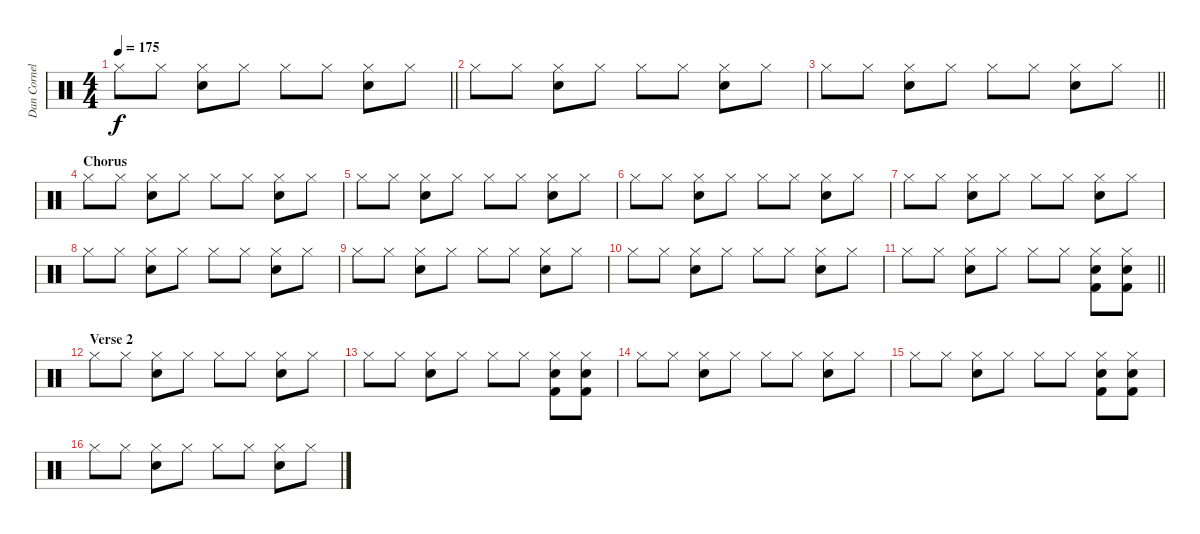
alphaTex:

\track ("Dan Cornelius" "Dan Cornel") {instrument percussion}
\staff {score}
\articulation defaults
\ts (4 4)
\tempo 175
\clef neutral
\barLineRight lightlight
\ks c "Hi-Hat (closed)".8{dy f} "Hi-Hat (closed)".8
("Hi-Hat (closed)" "Electric Snare (hit)").8 "Hi-Hat (closed)".8 "Hi-Hat (closed)".8 "Hi-Hat (closed)".8 ("Hi-Hat (closed)" "Electric Snare (hit)").8 "Hi-Hat (closed)".8 |
\section ("" "")
"Hi-Hat (closed)".8 "Hi-Hat (closed)".8 ("Hi-Hat (closed)" "Electric Snare (hit)").8 "Hi-Hat (closed)".8 "Hi-Hat (closed)".8 "Hi-Hat (closed)".8 ("Hi-Hat (closed)" "Electric Snare (hit)").8 "Hi-Hat (closed)".8 |
\barLineRight lightlight "Hi-Hat (closed)".8 "Hi-Hat (closed)".8
("Hi-Hat (closed)" "Electric Snare (hit)").8 "Hi-Hat (closed)".8 "Hi-Hat (closed)".8 "Hi-Hat (closed)".8 ("Hi-Hat (closed)" "Electric Snare (hit)").8 "Hi-Hat (closed)".8 |
\section ("" "Chorus")
"Hi-Hat (closed)".8 "Hi-Hat (closed)".8 ("Hi-Hat (closed)" "Electric Snare (hit)").8 "Hi-Hat (closed)".8 "Hi-Hat (closed)".8 "Hi-Hat (closed)".8 ("Hi-Hat (closed)" "Electric Snare (hit)").8 "Hi-Hat (closed)".8 |
"Hi-Hat (closed)".8 "Hi-Hat (closed)".8 ("Hi-Hat (closed)" "Electric Snare (hit)").8 "Hi-Hat (closed)".8 "Hi-Hat (closed)".8 "Hi-Hat (closed)".8 ("Hi-Hat (closed)" "Electric Snare (hit)").8 "Hi-Hat (closed)".8 |
"Hi-Hat (closed)".8 "Hi-Hat (closed)".8 ("Hi-Hat (closed)" "Electric Snare (hit)").8 "Hi-Hat (closed)".8 "Hi-Hat (closed)".8 "Hi-Hat (closed)".8 ("Hi-Hat (closed)" "Electric Snare (hit)").8 "Hi-Hat (closed)".8 |
"Hi-Hat (closed)".8 "Hi-Hat (closed)".8 ("Hi-Hat (closed)" "Electric Snare (hit)").8 "Hi-Hat (closed)".8 "Hi-Hat (closed)".8 "Hi-Hat (closed)".8 ("Hi-Hat (closed)" "Electric Snare (hit)").8 "Hi-Hat (closed)".8 |
"Hi-Hat (closed)".8 "Hi-Hat (closed)".8 ("Hi-Hat (closed)" "Electric Snare (hit)").8 "Hi-Hat (closed)".8 "Hi-Hat (closed)".8 "Hi-Hat (closed)".8 ("Hi-Hat (closed)" "Electric Snare (hit)").8 "Hi-Hat (closed)".8 |
"Hi-Hat (closed)".8 "Hi-Hat (closed)".8 ("Hi-Hat (closed)" "Electric Snare (hit)").8 "Hi-Hat (closed)".8 "Hi-Hat (closed)".8 "Hi-Hat (closed)".8 ("Hi-Hat (closed)" "Electric Snare (hit)").8 "Hi-Hat (closed)".8 |
"Hi-Hat (closed)".8 "Hi-Hat (closed)".8 ("Hi-Hat (closed)" "Electric Snare (hit)").8 "Hi-Hat (closed)".8 "Hi-Hat (closed)".8 "Hi-Hat (closed)".8 ("Hi-Hat (closed)" "Electric Snare (hit)").8 "Hi-Hat (closed)".8 |
\barLineRight lightlight "Hi-Hat (closed)".8 "Hi-Hat (closed)".8
("Hi-Hat (closed)" "Electric Snare (hit)").8 "Hi-Hat (closed)".8 "Hi-Hat (closed)".8 "Hi-Hat (closed)".8 ("Hi-Hat (closed)" "Electric Snare (hit)" "Kick (hit) 2").8 ("Hi-Hat (closed)" "Electric Snare (hit)" "Kick (hit) 2").8 |
\section ("" "Verse 2")
"Hi-Hat (closed)".8 "Hi-Hat (closed)".8 ("Hi-Hat (closed)" "Electric Snare (hit)").8 "Hi-Hat (closed)".8 "Hi-Hat (closed)".8 "Hi-Hat (closed)".8 ("Hi-Hat (closed)" "Electric Snare (hit)").8 "Hi-Hat (closed)".8 |
"Hi-Hat (closed)".8 "Hi-Hat (closed)".8 ("Hi-Hat (closed)" "Electric Snare (hit)").8 "Hi-Hat (closed)".8 "Hi-Hat (closed)".8 "Hi-Hat (closed)".8 ("Hi-Hat (closed)" "Kick (hit) 2" "Electric Snare (hit)").8 ("Hi-Hat (closed)" "Kick (hit) 2" "Electric Snare (hit)").8 |
"Hi-Hat (closed)".8 "Hi-Hat (closed)".8 ("Hi-Hat (closed)" "Electric Snare (hit)").8 "Hi-Hat (closed)".8 "Hi-Hat (closed)".8 "Hi-Hat (closed)".8 ("Hi-Hat (closed)" "Electric Snare (hit)").8 "Hi-Hat (closed)".8 |
"Hi-Hat (closed)".8 "Hi-Hat (closed)".8 ("Hi-Hat (closed)" "Electric Snare (hit)").8 "Hi-Hat (closed)".8 "Hi-Hat (closed)".8 "Hi-Hat (closed)".8 ("Hi-Hat (closed)" "Kick (hit) 2" "Electric Snare (hit)").8 ("Hi-Hat (closed)" "Kick (hit) 2" "Electric Snare (hit)").8 |
"Hi-Hat (closed)".8 "Hi-Hat (closed)".8 ("Hi-Hat (closed)" "Electric Snare (hit)").8 "Hi-Hat (closed)".8 "Hi-Hat (closed)".8 "Hi-Hat (closed)".8 ("Hi-Hat (closed)" "Electric Snare (hit)").8 "Hi-Hat (closed)".8
